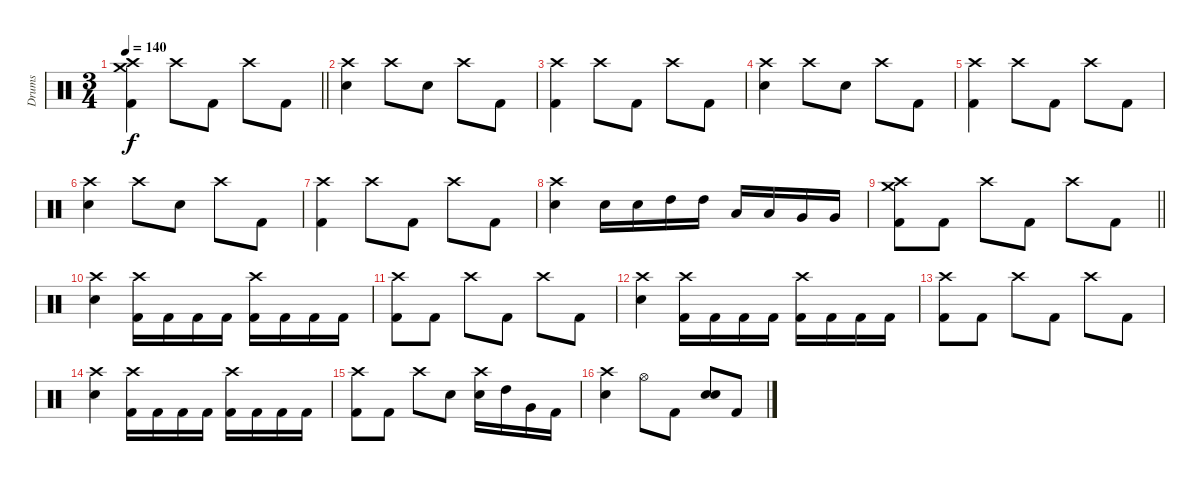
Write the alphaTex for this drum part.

\track ("Drums" "Drums") {instrument percussion}
\staff {score}
\articulation defaults
\ts (3 4)
\tempo 140
\clef neutral
\barLineRight lightlight
\ks c
("Kick (hit) 2" "Crash high (hit)" "Crash medium (hit)").4{dy f} "Crash high (hit)".8 "Kick (hit) 2".8 "Crash high (hit)".8 "Kick (hit) 2".8 |
("Electric Snare (hit)" "Crash high (hit)").4 "Crash high (hit)".8 "Electric Snare (hit)".8 "Crash high (hit)".8 "Kick (hit) 2".8 |
("Kick (hit) 2" "Crash high (hit)").4 "Crash high (hit)".8 "Kick (hit) 2".8 "Crash high (hit)".8 "Kick (hit) 2".8 |
("Electric Snare (hit)" "Crash high (hit)").4 "Crash high (hit)".8 "Electric Snare (hit)".8 "Crash high (hit)".8 "Kick (hit) 2".8 |
("Kick (hit) 2" "Crash high (hit)").4 "Crash high (hit)".8 "Kick (hit) 2".8 "Crash high (hit)".8 "Kick (hit) 2".8 |
("Electric Snare (hit)" "Crash high (hit)").4 "Crash high (hit)".8 "Electric Snare (hit)".8 "Crash high (hit)".8 "Kick (hit) 2".8 |
("Kick (hit) 2" "Crash high (hit)").4 "Crash high (hit)".8 "Kick (hit) 2".8 "Crash high (hit)".8 "Kick (hit) 2".8 |
("Electric Snare (hit)" "Crash high (hit)").4 "Electric Snare (hit)".16 "Electric Snare (hit)".16 "High Tom (hit)".16 "High Tom (hit)".16 "Low Tom (hit)".16 "Low Tom (hit)".16 "Very Low Tom (hit)".16 "Very Low Tom (hit)".16 |
\barLineRight lightlight
("Kick (hit) 2" "Crash high (hit)" "Crash medium (hit)").8 "Kick (hit) 2".8 "Crash high (hit)".8 "Kick (hit) 2".8 "Crash high (hit)".8 "Kick (hit) 2".8 |
("Electric Snare (hit)" "Crash high (hit)").4 ("Kick (hit) 2" "Crash high (hit)").16 "Kick (hit) 2".16 "Kick (hit) 2".16 "Kick (hit) 2".16 ("Kick (hit) 2" "Crash high (hit)").16 "Kick (hit) 2".16 "Kick (hit) 2".16 "Kick (hit) 2".16 |
("Kick (hit) 2" "Crash high (hit)").8 "Kick (hit) 2".8 "Crash high (hit)".8 "Kick (hit) 2".8 "Crash high (hit)".8 "Kick (hit) 2".8 |
("Electric Snare (hit)" "Crash high (hit)").4 ("Kick (hit) 2" "Crash high (hit)").16 "Kick (hit) 2".16 "Kick (hit) 2".16 "Kick (hit) 2".16 ("Kick (hit) 2" "Crash high (hit)").16 "Kick (hit) 2".16 "Kick (hit) 2".16 "Kick (hit) 2".16 |
("Kick (hit) 2" "Crash high (hit)").8 "Kick (hit) 2".8 "Crash high (hit)".8 "Kick (hit) 2".8 "Crash high (hit)".8 "Kick (hit) 2".8 |
("Electric Snare (hit)" "Crash high (hit)").4 ("Kick (hit) 2" "Crash high (hit)").16 "Kick (hit) 2".16 "Kick (hit) 2".16 "Kick (hit) 2".16 ("Kick (hit) 2" "Crash high (hit)").16 "Kick (hit) 2".16 "Kick (hit) 2".16 "Kick (hit) 2".16 |
("Kick (hit) 2" "Crash high (hit)").8 "Kick (hit) 2".8 "Crash high (hit)".8 "Electric Snare (hit)".8 ("Electric Snare (hit)" "Crash high (hit)").16 "High Tom (hit)".16 "Very Low Tom (hit)".16 "Kick (hit) 2".16 |
("Electric Snare (hit)" "Crash high (hit)").4 "Hi-Hat (open)".8 "Kick (hit) 2".8 ("Electric Snare (hit)" "Electric Snare (hit)").8 "Kick (hit) 2".8
